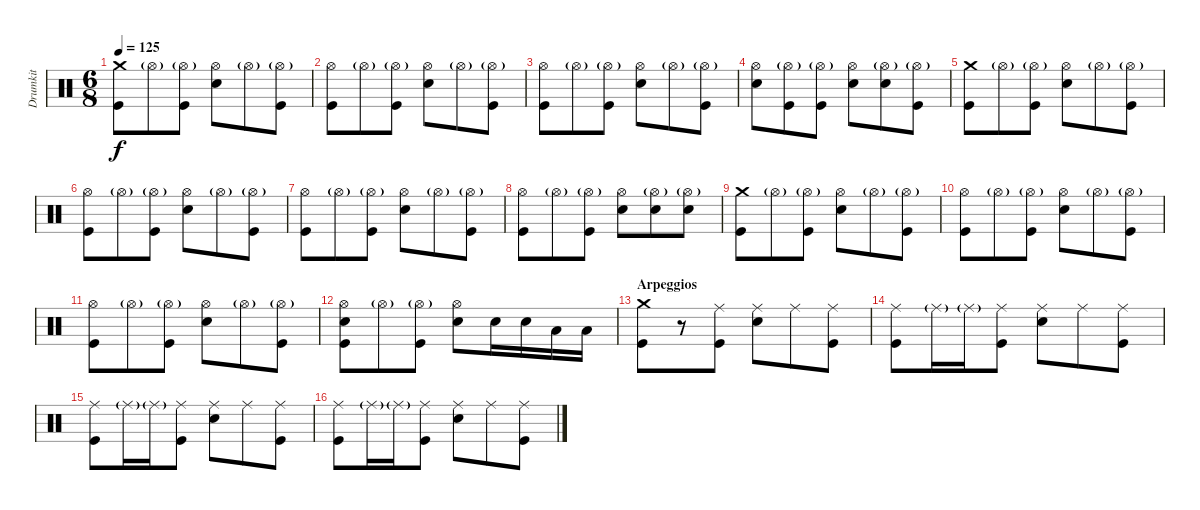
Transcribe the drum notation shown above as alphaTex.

\track ("Drumkit" "Drumkit") {instrument percussion}
\staff {score}
\articulation defaults
\ts (6 8)
\tempo 125
\clef neutral
\ks c
("Kick (hit)" "Crash medium (hit)").8{dy f} "Hi-Hat (open)"{g}.8 ("Kick (hit)" "Hi-Hat (open)"{g}).8 ("Snare (hit) 2" "Hi-Hat (open)").8 "Hi-Hat (open)"{g}.8 ("Hi-Hat (open)"{g} "Kick (hit)").8 |
("Kick (hit)" "Hi-Hat (open)").8 "Hi-Hat (open)"{g}.8 ("Kick (hit)" "Hi-Hat (open)"{g}).8 ("Snare (hit) 2" "Hi-Hat (open)").8 "Hi-Hat (open)"{g}.8 ("Hi-Hat (open)"{g} "Kick (hit)").8 |
("Kick (hit)" "Hi-Hat (open)").8 "Hi-Hat (open)"{g}.8 ("Kick (hit)" "Hi-Hat (open)"{g}).8 ("Snare (hit) 2" "Hi-Hat (open)").8 "Hi-Hat (open)"{g}.8 ("Hi-Hat (open)"{g} "Kick (hit)").8 |
("Hi-Hat (open)" "Snare (hit) 2").8 ("Hi-Hat (open)"{g} "Kick (hit)").8 ("Kick (hit)" "Hi-Hat (open)"{g}).8 ("Snare (hit) 2" "Hi-Hat (open)").8 ("Hi-Hat (open)"{g} "Snare (hit) 2").8 ("Hi-Hat (open)"{g} "Kick (hit)").8 |
("Kick (hit)" "Crash medium (hit)").8 "Hi-Hat (open)"{g}.8 ("Kick (hit)" "Hi-Hat (open)"{g}).8 ("Snare (hit) 2" "Hi-Hat (open)").8 "Hi-Hat (open)"{g}.8 ("Hi-Hat (open)"{g} "Kick (hit)").8 |
("Kick (hit)" "Hi-Hat (open)").8 "Hi-Hat (open)"{g}.8 ("Kick (hit)" "Hi-Hat (open)"{g}).8 ("Snare (hit) 2" "Hi-Hat (open)").8 "Hi-Hat (open)"{g}.8 ("Hi-Hat (open)"{g} "Kick (hit)").8 |
("Kick (hit)" "Hi-Hat (open)").8 "Hi-Hat (open)"{g}.8 ("Kick (hit)" "Hi-Hat (open)"{g}).8 ("Snare (hit) 2" "Hi-Hat (open)").8 "Hi-Hat (open)"{g}.8 ("Hi-Hat (open)"{g} "Kick (hit)").8 |
("Kick (hit)" "Hi-Hat (open)").8 "Hi-Hat (open)"{g}.8 ("Kick (hit)" "Hi-Hat (open)"{g}).8 ("Snare (hit) 2" "Hi-Hat (open)").8 ("Hi-Hat (open)"{g} "Snare (hit) 2").8 ("Hi-Hat (open)"{g} "Snare (hit) 2").8 |
("Kick (hit)" "Crash medium (hit)").8 "Hi-Hat (open)"{g}.8 ("Kick (hit)" "Hi-Hat (open)"{g}).8 ("Snare (hit) 2" "Hi-Hat (open)").8 "Hi-Hat (open)"{g}.8 ("Hi-Hat (open)"{g} "Kick (hit)").8 |
("Kick (hit)" "Hi-Hat (open)").8 "Hi-Hat (open)"{g}.8 ("Kick (hit)" "Hi-Hat (open)"{g}).8 ("Snare (hit) 2" "Hi-Hat (open)").8 "Hi-Hat (open)"{g}.8 ("Hi-Hat (open)"{g} "Kick (hit)").8 |
("Kick (hit)" "Hi-Hat (open)").8 "Hi-Hat (open)"{g}.8 ("Kick (hit)" "Hi-Hat (open)"{g}).8 ("Snare (hit) 2" "Hi-Hat (open)").8 "Hi-Hat (open)"{g}.8 ("Hi-Hat (open)"{g} "Kick (hit)").8 |
("Kick (hit)" "Hi-Hat (open)" "Snare (hit) 2").8 "Hi-Hat (open)"{g}.8 ("Kick (hit)" "Hi-Hat (open)"{g}).8 ("Snare (hit) 2" "Hi-Hat (open)").8 "Snare (hit) 2".16 "Snare (hit) 2".16 "Low Tom (hit)".16 "Low Tom (hit)".16 |
\section ("" "Arpeggios")
("Kick (hit)" "Crash medium (hit)").8 r.8 ("Kick (hit)" "Ride (middle)").8 ("Snare (hit) 2" "Ride (middle)").8 "Ride (middle)".8 ("Kick (hit)" "Ride (middle)").8 |
("Kick (hit)" "Ride (middle)").8 "Ride (middle)"{g}.16 "Ride (middle)"{g}.16 ("Kick (hit)" "Ride (middle)").8 ("Snare (hit) 2" "Ride (middle)").8 "Ride (middle)".8 ("Kick (hit)" "Ride (middle)").8 |
("Kick (hit)" "Ride (middle)").8 "Ride (middle)"{g}.16 "Ride (middle)"{g}.16 ("Kick (hit)" "Ride (middle)").8 ("Snare (hit) 2" "Ride (middle)").8 "Ride (middle)".8 ("Kick (hit)" "Ride (middle)").8 |
("Kick (hit)" "Ride (middle)").8 "Ride (middle)"{g}.16 "Ride (middle)"{g}.16 ("Kick (hit)" "Ride (middle)").8 ("Snare (hit) 2" "Ride (middle)").8 "Ride (middle)".8 ("Kick (hit)" "Ride (middle)").8
